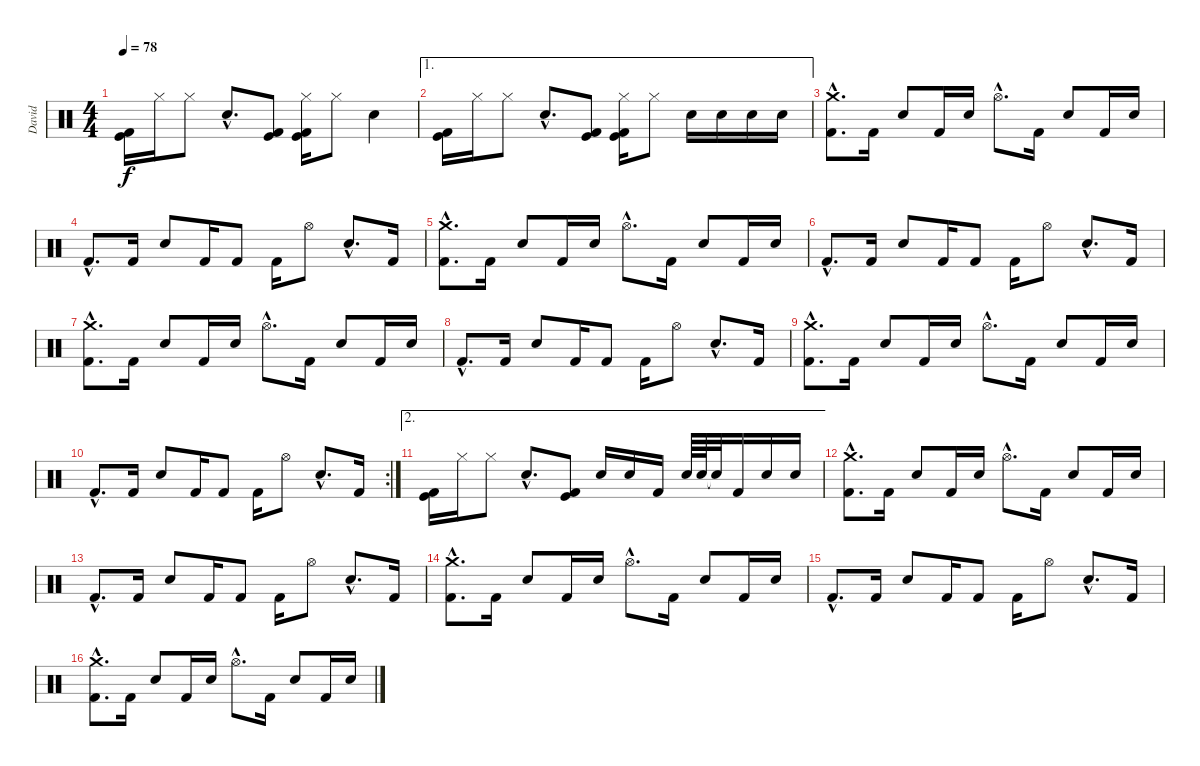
\track ("David" "David") {instrument percussion}
\staff {score}
\articulation defaults
\ts (4 4)
\tempo 78
\clef neutral
\ks c
("Kick (hit) 2" "Kick (hit)").16{dy f} "Hi-Hat (closed)".16 "Hi-Hat (closed)".8 "Electric Snare (hit)"{hac}.8{d} ("Kick (hit) 2" "Kick (hit)").8 ("Hi-Hat (closed)" "Kick (hit) 2" "Kick (hit)").16 "Hi-Hat (closed)".8 "Electric Snare (hit)".4 |
\ae 1
("Kick (hit) 2" "Kick (hit)").16 "Hi-Hat (closed)".16 "Hi-Hat (closed)".8 "Electric Snare (hit)"{hac}.8{d} ("Kick (hit) 2" "Kick (hit)").8 ("Hi-Hat (closed)" "Kick (hit) 2" "Kick (hit)").16 "Hi-Hat (closed)".8 "Snare (hit) 2".16 "Snare (hit) 2".16 "Snare (hit) 2".16 "Snare (hit) 2".16 |
("Crash medium (hit)"{hac} "Kick (hit) 2"{hac}).8{d} "Kick (hit) 2".16 "Snare (hit) 2".8 "Kick (hit) 2".16 "Snare (hit) 2".16 "Hi-Hat (open)"{hac}.8{d} "Kick (hit) 2".16 "Snare (hit) 2".8 "Kick (hit) 2".16 "Snare (hit) 2".16 |
"Kick (hit) 2"{hac}.8{d} "Kick (hit) 2".16 "Snare (hit) 2".8 "Kick (hit) 2".16 "Kick (hit) 2".8 "Kick (hit) 2".16 "Hi-Hat (open)".8 "Snare (hit) 2"{hac}.8{d} "Kick (hit) 2".16 |
("Crash medium (hit)"{hac} "Kick (hit) 2"{hac}).8{d} "Kick (hit) 2".16 "Snare (hit) 2".8 "Kick (hit) 2".16 "Snare (hit) 2".16 "Hi-Hat (open)"{hac}.8{d} "Kick (hit) 2".16 "Snare (hit) 2".8 "Kick (hit) 2".16 "Snare (hit) 2".16 |
"Kick (hit) 2"{hac}.8{d} "Kick (hit) 2".16 "Snare (hit) 2".8 "Kick (hit) 2".16 "Kick (hit) 2".8 "Kick (hit) 2".16 "Hi-Hat (open)".8 "Snare (hit) 2"{hac}.8{d} "Kick (hit) 2".16 |
("Crash medium (hit)"{hac} "Kick (hit) 2"{hac}).8{d} "Kick (hit) 2".16 "Snare (hit) 2".8 "Kick (hit) 2".16 "Snare (hit) 2".16 "Hi-Hat (open)"{hac}.8{d} "Kick (hit) 2".16 "Snare (hit) 2".8 "Kick (hit) 2".16 "Snare (hit) 2".16 |
"Kick (hit) 2"{hac}.8{d} "Kick (hit) 2".16 "Snare (hit) 2".8 "Kick (hit) 2".16 "Kick (hit) 2".8 "Kick (hit) 2".16 "Hi-Hat (open)".8 "Snare (hit) 2"{hac}.8{d} "Kick (hit) 2".16 |
("Crash medium (hit)"{hac} "Kick (hit) 2"{hac}).8{d} "Kick (hit) 2".16 "Snare (hit) 2".8 "Kick (hit) 2".16 "Snare (hit) 2".16 "Hi-Hat (open)"{hac}.8{d} "Kick (hit) 2".16 "Snare (hit) 2".8 "Kick (hit) 2".16 "Snare (hit) 2".16 |
\rc 2 "Kick (hit) 2"{hac}.8{d} "Kick (hit) 2".16 "Snare (hit) 2".8 "Kick (hit) 2".16 "Kick (hit) 2".8 "Kick (hit) 2".16 "Hi-Hat (open)".8 "Snare (hit) 2"{hac}.8{d} "Kick (hit) 2".16
|
\ae 2
("Kick (hit) 2" "Kick (hit)").16 "Hi-Hat (closed)".16 "Hi-Hat (closed)".8 "Electric Snare (hit)"{hac}.8{d} ("Kick (hit) 2" "Kick (hit)").8 "Snare (hit) 2".16 "Snare (hit) 2".16 "Kick (hit) 2".16 "Snare (hit) 2".64 "Snare (hit) 2".64 "Snare (hit)"{t}.32 "Kick (hit) 2".16 "Snare (hit) 2".16 "Snare (hit) 2".16 |
("Crash medium (hit)"{hac} "Kick (hit) 2"{hac}).8{d} "Kick (hit) 2".16 "Snare (hit) 2".8 "Kick (hit) 2".16 "Snare (hit) 2".16 "Hi-Hat (open)"{hac}.8{d} "Kick (hit) 2".16 "Snare (hit) 2".8 "Kick (hit) 2".16 "Snare (hit) 2".16 |
"Kick (hit) 2"{hac}.8{d} "Kick (hit) 2".16 "Snare (hit) 2".8 "Kick (hit) 2".16 "Kick (hit) 2".8 "Kick (hit) 2".16 "Hi-Hat (open)".8 "Snare (hit) 2"{hac}.8{d} "Kick (hit) 2".16 |
("Crash medium (hit)"{hac} "Kick (hit) 2"{hac}).8{d} "Kick (hit) 2".16 "Snare (hit) 2".8 "Kick (hit) 2".16 "Snare (hit) 2".16 "Hi-Hat (open)"{hac}.8{d} "Kick (hit) 2".16 "Snare (hit) 2".8 "Kick (hit) 2".16 "Snare (hit) 2".16 |
"Kick (hit) 2"{hac}.8{d} "Kick (hit) 2".16 "Snare (hit) 2".8 "Kick (hit) 2".16 "Kick (hit) 2".8 "Kick (hit) 2".16 "Hi-Hat (open)".8 "Snare (hit) 2"{hac}.8{d} "Kick (hit) 2".16 |
("Crash medium (hit)"{hac} "Kick (hit) 2"{hac}).8{d} "Kick (hit) 2".16 "Snare (hit) 2".8 "Kick (hit) 2".16 "Snare (hit) 2".16 "Hi-Hat (open)"{hac}.8{d} "Kick (hit) 2".16 "Snare (hit) 2".8 "Kick (hit) 2".16 "Snare (hit) 2".16
